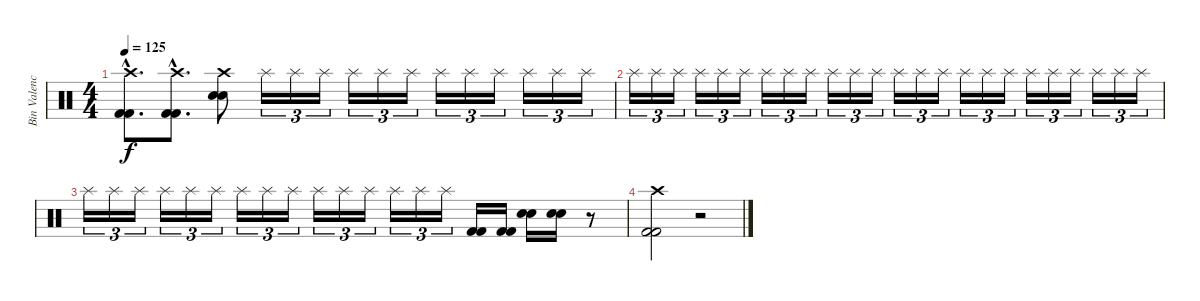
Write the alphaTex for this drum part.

\track ("Bin Valencia (Bateria)" "Bin Valenc") {instrument percussion}
\staff {score}
\articulation defaults
\ts (4 4)
\tempo 125
\clef neutral
\ks c
("Crash high (hit)"{hac} "Kick (hit) 2"{hac} "Kick (hit) 2"{hac}).8{d dy f} ("Crash high (hit)"{hac} "Kick (hit) 2"{hac} "Kick (hit) 2"{hac}).8{d} ("Crash high (hit)" "Snare (hit) 2" "Snare (hit) 2").8 "Splash (hit)".16{tu (3 2)} "Splash (hit)".16{tu (3 2)} "Splash (hit)".16{tu (3 2)} "Splash (hit)".16{tu (3 2)} "Splash (hit)".16{tu (3 2)} "Splash (hit)".16{tu (3 2)} "Splash (hit)".16{tu (3 2)} "Splash (hit)".16{tu (3 2)} "Splash (hit)".16{tu (3 2)} "Splash (hit)".16{tu (3 2)} "Splash (hit)".16{tu (3 2)} "Splash (hit)".16{tu (3 2)} |
"Splash (hit)".16{tu (3 2)} "Splash (hit)".16{tu (3 2)} "Splash (hit)".16{tu (3 2)} "Splash (hit)".16{tu (3 2)} "Splash (hit)".16{tu (3 2)} "Splash (hit)".16{tu (3 2)} "Splash (hit)".16{tu (3 2)} "Splash (hit)".16{tu (3 2)} "Splash (hit)".16{tu (3 2)} "Splash (hit)".16{tu (3 2)} "Splash (hit)".16{tu (3 2)} "Splash (hit)".16{tu (3 2)} "Splash (hit)".16{tu (3 2)} "Splash (hit)".16{tu (3 2)} "Splash (hit)".16{tu (3 2)} "Splash (hit)".16{tu (3 2)} "Splash (hit)".16{tu (3 2)} "Splash (hit)".16{tu (3 2)} "Splash (hit)".16{tu (3 2)} "Splash (hit)".16{tu (3 2)} "Splash (hit)".16{tu (3 2)} "Splash (hit)".16{tu (3 2)} "Splash (hit)".16{tu (3 2)} "Splash (hit)".16{tu (3 2)} |
"Splash (hit)".16{tu (3 2)} "Splash (hit)".16{tu (3 2)} "Splash (hit)".16{tu (3 2)} "Splash (hit)".16{tu (3 2)} "Splash (hit)".16{tu (3 2)} "Splash (hit)".16{tu (3 2)} "Splash (hit)".16{tu (3 2)} "Splash (hit)".16{tu (3 2)} "Splash (hit)".16{tu (3 2)} "Splash (hit)".16{tu (3 2)} "Splash (hit)".16{tu (3 2)} "Splash (hit)".16{tu (3 2)} "Splash (hit)".16{tu (3 2)} "Splash (hit)".16{tu (3 2)} "Splash (hit)".16{tu (3 2)} ("Kick (hit) 2" "Kick (hit) 2").16 ("Kick (hit) 2" "Kick (hit) 2").16 ("Electric Snare (hit)" "Electric Snare (hit)").16 ("Electric Snare (hit)" "Electric Snare (hit)").16 r.8 |
("Crash high (hit)" "Kick (hit) 2" "Kick (hit) 2").2 r.2
